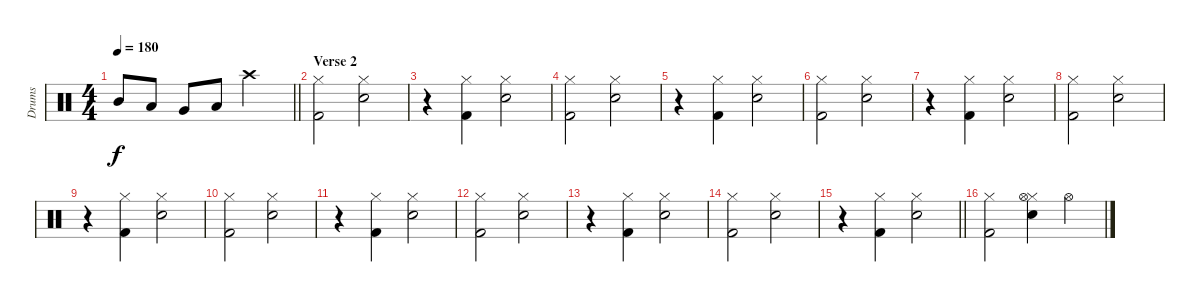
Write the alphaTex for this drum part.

\track ("Drums" "Drums") {instrument percussion}
\staff {score}
\articulation defaults
\ts (4 4)
\tempo 180
\clef neutral
\barLineRight lightlight
\ks c "Mid Tom (hit)".8{dy f} "Low Tom (hit)".8 "Very Low Tom (hit)".8 "Low Floor Tom (hit)".8 "Crash high (hit)".2
|
\section ("" "Verse 2")
("Hi-Hat (closed)" "Kick (hit) 2").2 ("Hi-Hat (closed)" "Electric Snare (hit)").2 |
r.4 ("Hi-Hat (closed)" "Kick (hit) 2").4 ("Hi-Hat (closed)" "Electric Snare (hit)").2 |
("Hi-Hat (closed)" "Kick (hit) 2").2 ("Hi-Hat (closed)" "Electric Snare (hit)").2 |
r.4 ("Hi-Hat (closed)" "Kick (hit) 2").4 ("Hi-Hat (closed)" "Electric Snare (hit)").2 |
("Hi-Hat (closed)" "Kick (hit) 2").2 ("Hi-Hat (closed)" "Electric Snare (hit)").2 |
r.4 ("Hi-Hat (closed)" "Kick (hit) 2").4 ("Hi-Hat (closed)" "Electric Snare (hit)").2 |
("Hi-Hat (closed)" "Kick (hit) 2").2 ("Hi-Hat (closed)" "Electric Snare (hit)").2 |
r.4 ("Hi-Hat (closed)" "Kick (hit) 2").4 ("Hi-Hat (closed)" "Electric Snare (hit)").2 |
("Hi-Hat (closed)" "Kick (hit) 2").2 ("Hi-Hat (closed)" "Electric Snare (hit)").2 |
r.4 ("Hi-Hat (closed)" "Kick (hit) 2").4 ("Hi-Hat (closed)" "Electric Snare (hit)").2 |
("Hi-Hat (closed)" "Kick (hit) 2").2 ("Hi-Hat (closed)" "Electric Snare (hit)").2 |
r.4 ("Hi-Hat (closed)" "Kick (hit) 2").4 ("Hi-Hat (closed)" "Electric Snare (hit)").2 |
("Hi-Hat (closed)" "Kick (hit) 2").2 ("Hi-Hat (closed)" "Electric Snare (hit)").2 |
\barLineRight lightlight
r.4 ("Hi-Hat (closed)" "Kick (hit) 2").4 ("Hi-Hat (closed)" "Electric Snare (hit)").2 |
("Hi-Hat (closed)" "Kick (hit) 2").2 ("Hi-Hat (closed)" "Electric Snare (hit)" "Hi-Hat (open)").4 "Hi-Hat (open)".4
